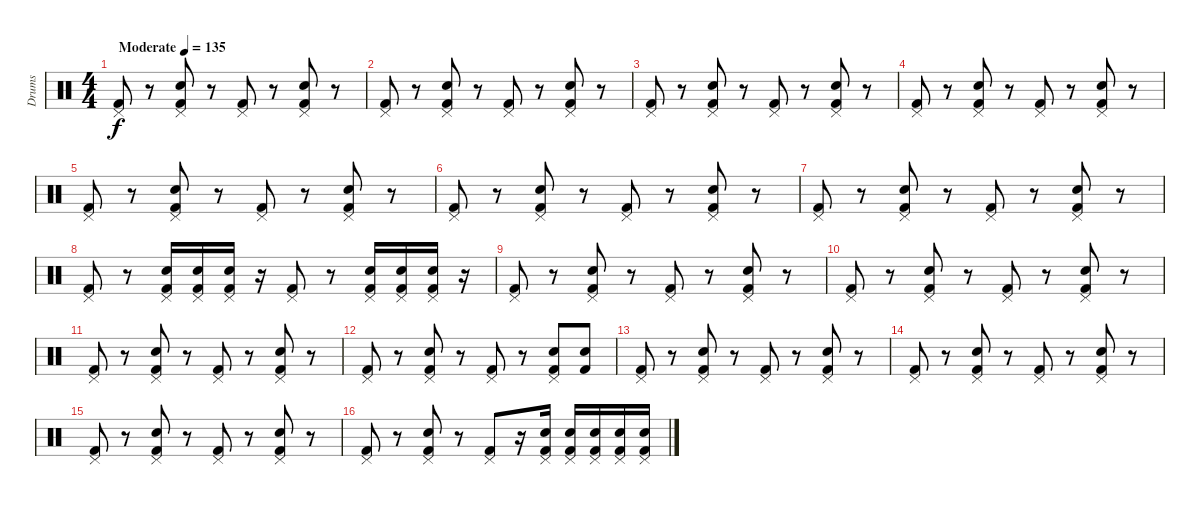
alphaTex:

\track ("Drums" "Drums") {instrument percussion}
\staff {score}
\articulation defaults
\ts (4 4)
\tempo (135 "Moderate")
\clef neutral
\ks c
("Pedal Hi-Hat (hit)" "Kick (hit) 2").8{dy f} r.8 ("Pedal Hi-Hat (hit)" "Snare (hit) 2" "Kick (hit) 2").8 r.8 ("Pedal Hi-Hat (hit)" "Kick (hit) 2").8 r.8 ("Pedal Hi-Hat (hit)" "Snare (hit) 2" "Kick (hit) 2").8 r.8 |
("Pedal Hi-Hat (hit)" "Kick (hit) 2").8 r.8 ("Pedal Hi-Hat (hit)" "Snare (hit) 2" "Kick (hit) 2").8 r.8 ("Pedal Hi-Hat (hit)" "Kick (hit) 2").8 r.8 ("Pedal Hi-Hat (hit)" "Snare (hit) 2" "Kick (hit) 2").8 r.8 |
("Pedal Hi-Hat (hit)" "Kick (hit) 2").8 r.8 ("Pedal Hi-Hat (hit)" "Snare (hit) 2" "Kick (hit) 2").8 r.8 ("Pedal Hi-Hat (hit)" "Kick (hit) 2").8 r.8 ("Pedal Hi-Hat (hit)" "Snare (hit) 2" "Kick (hit) 2").8 r.8 |
("Pedal Hi-Hat (hit)" "Kick (hit) 2").8 r.8 ("Pedal Hi-Hat (hit)" "Snare (hit) 2" "Kick (hit) 2").8 r.8 ("Pedal Hi-Hat (hit)" "Kick (hit) 2").8 r.8 ("Pedal Hi-Hat (hit)" "Snare (hit) 2" "Kick (hit) 2").8 r.8 |
("Pedal Hi-Hat (hit)" "Kick (hit) 2").8 r.8 ("Pedal Hi-Hat (hit)" "Snare (hit) 2" "Kick (hit) 2").8 r.8 ("Pedal Hi-Hat (hit)" "Kick (hit) 2").8 r.8 ("Pedal Hi-Hat (hit)" "Snare (hit) 2" "Kick (hit) 2").8 r.8 |
("Pedal Hi-Hat (hit)" "Kick (hit) 2").8 r.8 ("Pedal Hi-Hat (hit)" "Snare (hit) 2" "Kick (hit) 2").8 r.8 ("Pedal Hi-Hat (hit)" "Kick (hit) 2").8 r.8 ("Pedal Hi-Hat (hit)" "Snare (hit) 2" "Kick (hit) 2").8 r.8 |
("Pedal Hi-Hat (hit)" "Kick (hit) 2").8 r.8 ("Pedal Hi-Hat (hit)" "Snare (hit) 2" "Kick (hit) 2").8 r.8 ("Pedal Hi-Hat (hit)" "Kick (hit) 2").8 r.8 ("Pedal Hi-Hat (hit)" "Snare (hit) 2" "Kick (hit) 2").8 r.8 |
("Pedal Hi-Hat (hit)" "Kick (hit) 2").8 r.8 ("Pedal Hi-Hat (hit)" "Snare (hit) 2" "Kick (hit) 2").16 ("Pedal Hi-Hat (hit)" "Snare (hit) 2" "Kick (hit) 2").16 ("Pedal Hi-Hat (hit)" "Snare (hit) 2" "Kick (hit) 2").16 r.16 ("Pedal Hi-Hat (hit)" "Kick (hit) 2").8 r.8 ("Pedal Hi-Hat (hit)" "Snare (hit) 2" "Kick (hit) 2").16 ("Pedal Hi-Hat (hit)" "Snare (hit) 2" "Kick (hit) 2").16 ("Pedal Hi-Hat (hit)" "Snare (hit) 2" "Kick (hit) 2").16 r.16 |
("Pedal Hi-Hat (hit)" "Kick (hit) 2").8 r.8 ("Pedal Hi-Hat (hit)" "Snare (hit) 2" "Kick (hit) 2").8 r.8 ("Pedal Hi-Hat (hit)" "Kick (hit) 2").8 r.8 ("Pedal Hi-Hat (hit)" "Snare (hit) 2" "Kick (hit) 2").8 r.8 |
("Pedal Hi-Hat (hit)" "Kick (hit) 2").8 r.8 ("Pedal Hi-Hat (hit)" "Snare (hit) 2" "Kick (hit) 2").8 r.8 ("Pedal Hi-Hat (hit)" "Kick (hit) 2").8 r.8 ("Pedal Hi-Hat (hit)" "Snare (hit) 2" "Kick (hit) 2").8 r.8 |
("Pedal Hi-Hat (hit)" "Kick (hit) 2").8 r.8 ("Pedal Hi-Hat (hit)" "Snare (hit) 2" "Kick (hit) 2").8 r.8 ("Pedal Hi-Hat (hit)" "Kick (hit) 2").8 r.8 ("Pedal Hi-Hat (hit)" "Snare (hit) 2" "Kick (hit) 2").8 r.8 |
("Pedal Hi-Hat (hit)" "Kick (hit) 2").8 r.8 ("Pedal Hi-Hat (hit)" "Snare (hit) 2" "Kick (hit) 2").8 r.8 ("Pedal Hi-Hat (hit)" "Kick (hit) 2").8 r.8 ("Pedal Hi-Hat (hit)" "Snare (hit) 2" "Kick (hit) 2").8 ("Snare (hit) 2" "Kick (hit) 2").8 |
("Pedal Hi-Hat (hit)" "Kick (hit) 2").8 r.8 ("Pedal Hi-Hat (hit)" "Snare (hit) 2" "Kick (hit) 2").8 r.8 ("Pedal Hi-Hat (hit)" "Kick (hit) 2").8 r.8 ("Pedal Hi-Hat (hit)" "Snare (hit) 2" "Kick (hit) 2").8 r.8 |
("Pedal Hi-Hat (hit)" "Kick (hit) 2").8 r.8 ("Pedal Hi-Hat (hit)" "Snare (hit) 2" "Kick (hit) 2").8 r.8 ("Pedal Hi-Hat (hit)" "Kick (hit) 2").8 r.8 ("Pedal Hi-Hat (hit)" "Snare (hit) 2" "Kick (hit) 2").8 r.8 |
("Pedal Hi-Hat (hit)" "Kick (hit) 2").8 r.8 ("Pedal Hi-Hat (hit)" "Snare (hit) 2" "Kick (hit) 2").8 r.8 ("Pedal Hi-Hat (hit)" "Kick (hit) 2").8 r.8 ("Pedal Hi-Hat (hit)" "Snare (hit) 2" "Kick (hit) 2").8 r.8 |
("Pedal Hi-Hat (hit)" "Kick (hit) 2").8 r.8 ("Pedal Hi-Hat (hit)" "Snare (hit) 2" "Kick (hit) 2").8 r.8 ("Pedal Hi-Hat (hit)" "Kick (hit) 2").8 r.16 ("Pedal Hi-Hat (hit)" "Snare (hit) 2" "Kick (hit) 2").16 ("Pedal Hi-Hat (hit)" "Snare (hit) 2" "Kick (hit) 2").16 ("Pedal Hi-Hat (hit)" "Snare (hit) 2" "Kick (hit) 2").16 ("Pedal Hi-Hat (hit)" "Snare (hit) 2" "Kick (hit) 2").16 ("Pedal Hi-Hat (hit)" "Snare (hit) 2" "Kick (hit) 2").16
